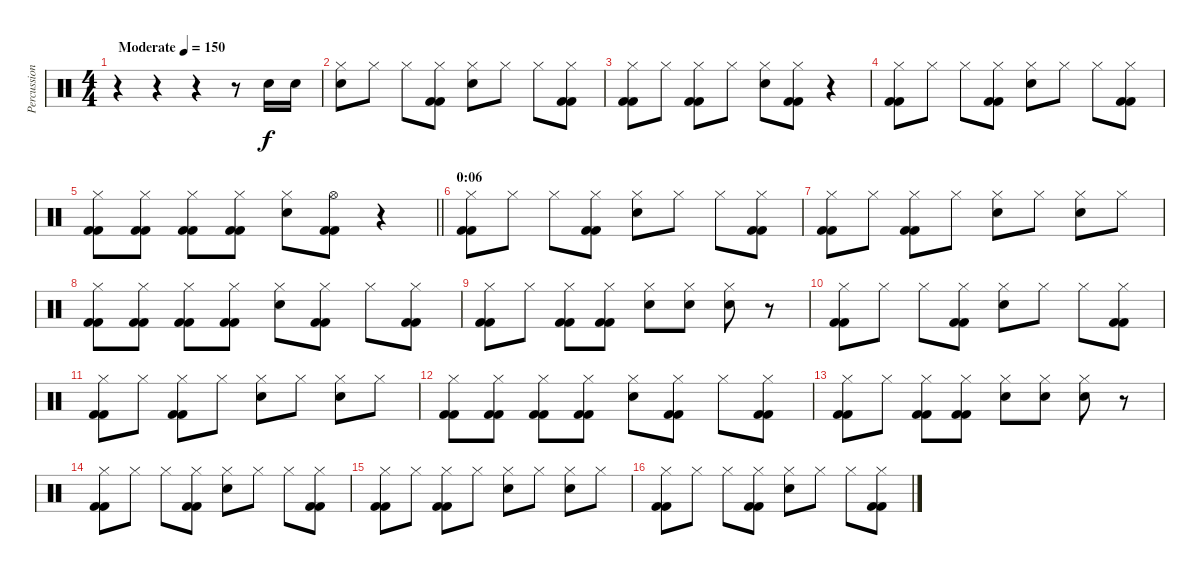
\track ("Percussion" "Percussion") {instrument percussion}
\staff {score}
\articulation defaults
\ts (4 4)
\tempo (150 "Moderate")
\clef neutral
\ks c
r.4{dy f} r.4 r.4 r.8 "Electric Snare (hit)".16 "Electric Snare (hit)".16 |
("Electric Snare (hit)" "Hi-Hat (closed)").8 "Hi-Hat (closed)".8 "Hi-Hat (closed)".8 ("Kick (hit) 2" "Kick (hit) 2" "Hi-Hat (closed)").8 ("Electric Snare (hit)" "Hi-Hat (closed)").8 "Hi-Hat (closed)".8 "Hi-Hat (closed)".8 ("Kick (hit) 2" "Kick (hit) 2" "Hi-Hat (closed)").8 |
("Kick (hit) 2" "Kick (hit) 2" "Hi-Hat (closed)").8 "Hi-Hat (closed)".8 ("Kick (hit) 2" "Kick (hit) 2" "Hi-Hat (closed)").8 "Hi-Hat (closed)".8 ("Electric Snare (hit)" "Hi-Hat (closed)").8 ("Kick (hit) 2" "Kick (hit) 2" "Hi-Hat (closed)").8 r.4 |
("Kick (hit) 2" "Kick (hit) 2" "Hi-Hat (closed)").8 "Hi-Hat (closed)".8 "Hi-Hat (closed)".8 ("Kick (hit) 2" "Kick (hit) 2" "Hi-Hat (closed)").8 ("Electric Snare (hit)" "Hi-Hat (closed)").8 "Hi-Hat (closed)".8 "Hi-Hat (closed)".8 ("Kick (hit) 2" "Kick (hit) 2" "Hi-Hat (closed)").8 |
\barLineRight lightlight
("Kick (hit) 2" "Kick (hit) 2" "Hi-Hat (closed)").8 ("Kick (hit) 2" "Kick (hit) 2" "Hi-Hat (closed)").8 ("Kick (hit) 2" "Kick (hit) 2" "Hi-Hat (closed)").8 ("Kick (hit) 2" "Kick (hit) 2" "Hi-Hat (closed)").8 ("Electric Snare (hit)" "Hi-Hat (closed)").8 ("Kick (hit) 2" "Kick (hit) 2" "Hi-Hat (open)").8 r.4 |
\section ("" "0:06")
("Kick (hit) 2" "Kick (hit) 2" "Hi-Hat (closed)").8 "Hi-Hat (closed)".8 "Hi-Hat (closed)".8 ("Kick (hit) 2" "Kick (hit) 2" "Hi-Hat (closed)").8 ("Electric Snare (hit)" "Hi-Hat (closed)").8 "Hi-Hat (closed)".8 "Hi-Hat (closed)".8 ("Kick (hit) 2" "Kick (hit) 2" "Hi-Hat (closed)").8 |
("Kick (hit) 2" "Kick (hit) 2" "Hi-Hat (closed)").8 "Hi-Hat (closed)".8 ("Kick (hit) 2" "Kick (hit) 2" "Hi-Hat (closed)").8 "Hi-Hat (closed)".8 ("Electric Snare (hit)" "Hi-Hat (closed)").8 "Hi-Hat (closed)".8 ("Electric Snare (hit)" "Hi-Hat (closed)").8 "Hi-Hat (closed)".8 |
("Kick (hit) 2" "Kick (hit) 2" "Hi-Hat (closed)").8 ("Kick (hit) 2" "Kick (hit) 2" "Hi-Hat (closed)").8 ("Kick (hit) 2" "Kick (hit) 2" "Hi-Hat (closed)").8 ("Kick (hit) 2" "Kick (hit) 2" "Hi-Hat (closed)").8 ("Electric Snare (hit)" "Hi-Hat (closed)").8 ("Kick (hit) 2" "Kick (hit) 2" "Hi-Hat (closed)").8 "Hi-Hat (closed)".8 ("Kick (hit) 2" "Kick (hit) 2" "Hi-Hat (closed)").8 |
("Kick (hit) 2" "Kick (hit) 2" "Hi-Hat (closed)").8 "Hi-Hat (closed)".8 ("Kick (hit) 2" "Kick (hit) 2" "Hi-Hat (closed)").8 ("Kick (hit) 2" "Kick (hit) 2" "Hi-Hat (closed)").8 ("Electric Snare (hit)" "Hi-Hat (closed)").8 ("Electric Snare (hit)" "Hi-Hat (closed)").8 ("Electric Snare (hit)" "Hi-Hat (closed)").8 r.8 |
("Kick (hit) 2" "Kick (hit) 2" "Hi-Hat (closed)").8 "Hi-Hat (closed)".8 "Hi-Hat (closed)".8 ("Kick (hit) 2" "Kick (hit) 2" "Hi-Hat (closed)").8 ("Electric Snare (hit)" "Hi-Hat (closed)").8 "Hi-Hat (closed)".8 "Hi-Hat (closed)".8 ("Kick (hit) 2" "Kick (hit) 2" "Hi-Hat (closed)").8 |
("Kick (hit) 2" "Kick (hit) 2" "Hi-Hat (closed)").8 "Hi-Hat (closed)".8 ("Kick (hit) 2" "Kick (hit) 2" "Hi-Hat (closed)").8 "Hi-Hat (closed)".8 ("Electric Snare (hit)" "Hi-Hat (closed)").8 "Hi-Hat (closed)".8 ("Electric Snare (hit)" "Hi-Hat (closed)").8 "Hi-Hat (closed)".8 |
("Kick (hit) 2" "Kick (hit) 2" "Hi-Hat (closed)").8 ("Kick (hit) 2" "Kick (hit) 2" "Hi-Hat (closed)").8 ("Kick (hit) 2" "Kick (hit) 2" "Hi-Hat (closed)").8 ("Kick (hit) 2" "Kick (hit) 2" "Hi-Hat (closed)").8 ("Electric Snare (hit)" "Hi-Hat (closed)").8 ("Kick (hit) 2" "Kick (hit) 2" "Hi-Hat (closed)").8 "Hi-Hat (closed)".8 ("Kick (hit) 2" "Kick (hit) 2" "Hi-Hat (closed)").8 |
("Kick (hit) 2" "Kick (hit) 2" "Hi-Hat (closed)").8 "Hi-Hat (closed)".8 ("Kick (hit) 2" "Kick (hit) 2" "Hi-Hat (closed)").8 ("Kick (hit) 2" "Kick (hit) 2" "Hi-Hat (closed)").8 ("Electric Snare (hit)" "Hi-Hat (closed)").8 ("Electric Snare (hit)" "Hi-Hat (closed)").8 ("Electric Snare (hit)" "Hi-Hat (closed)").8 r.8 |
("Kick (hit) 2" "Kick (hit) 2" "Hi-Hat (closed)").8 "Hi-Hat (closed)".8 "Hi-Hat (closed)".8 ("Kick (hit) 2" "Kick (hit) 2" "Hi-Hat (closed)").8 ("Electric Snare (hit)" "Hi-Hat (closed)").8 "Hi-Hat (closed)".8 "Hi-Hat (closed)".8 ("Kick (hit) 2" "Kick (hit) 2" "Hi-Hat (closed)").8 |
("Kick (hit) 2" "Kick (hit) 2" "Hi-Hat (closed)").8 "Hi-Hat (closed)".8 ("Kick (hit) 2" "Kick (hit) 2" "Hi-Hat (closed)").8 "Hi-Hat (closed)".8 ("Electric Snare (hit)" "Hi-Hat (closed)").8 "Hi-Hat (closed)".8 ("Electric Snare (hit)" "Hi-Hat (closed)").8 "Hi-Hat (closed)".8 |
("Kick (hit) 2" "Kick (hit) 2" "Hi-Hat (closed)").8 "Hi-Hat (closed)".8 "Hi-Hat (closed)".8 ("Kick (hit) 2" "Kick (hit) 2" "Hi-Hat (closed)").8 ("Electric Snare (hit)" "Hi-Hat (closed)").8 "Hi-Hat (closed)".8 "Hi-Hat (closed)".8 ("Kick (hit) 2" "Kick (hit) 2" "Hi-Hat (closed)").8
